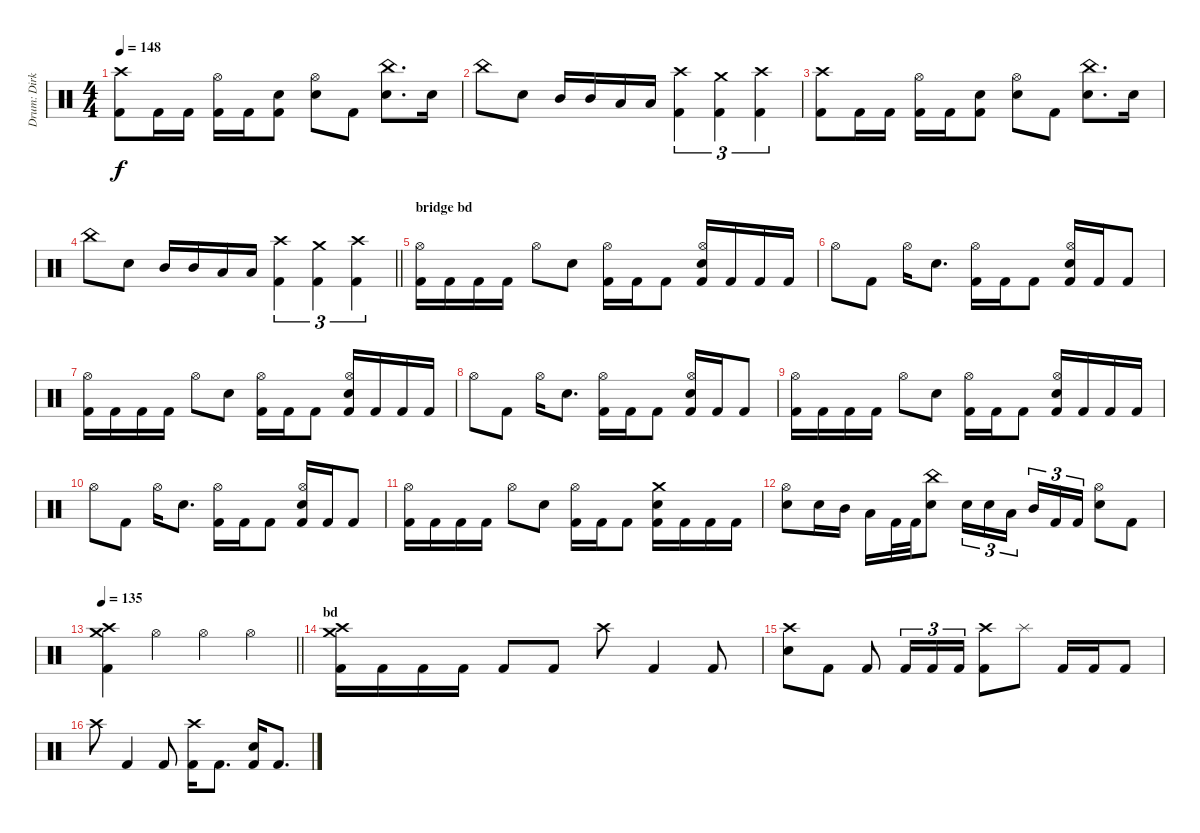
\track ("Drum: Dirk" "Drum: Dirk") {instrument percussion}
\staff {score}
\articulation defaults
\ts (4 4)
\tempo 148
\clef neutral
\ks c
("Crash high (hit)" "Kick (hit) 2").8{dy f} "Kick (hit) 2".16 "Kick (hit) 2".16 ("Hi-Hat (open)" "Kick (hit) 2").16 "Kick (hit) 2".16 ("Electric Snare (hit)" "Kick (hit) 2").8 ("Hi-Hat (open)" "Electric Snare (hit)").8 "Kick (hit) 2".8 ("China (hit)" "Electric Snare (hit)").8{d} "Electric Snare (hit)".16 |
"China (hit)".8 "Electric Snare (hit)".8 "Mid Tom (hit)".16 "Mid Tom (hit)".16 "Low Tom (hit)".16 "Low Tom (hit)".16 ("Crash high (hit)" "Kick (hit) 2").4{tu (3 2)} ("Crash medium (hit)" "Kick (hit) 2").4{tu (3 2)} ("Crash high (hit)" "Kick (hit) 2").4{tu (3 2)} |
("Crash high (hit)" "Kick (hit) 2").8 "Kick (hit) 2".16 "Kick (hit) 2".16 ("Hi-Hat (open)" "Kick (hit) 2").16 "Kick (hit) 2".16 ("Electric Snare (hit)" "Kick (hit) 2").8 ("Hi-Hat (open)" "Electric Snare (hit)").8 "Kick (hit) 2".8 ("China (hit)" "Electric Snare (hit)").8{d} "Electric Snare (hit)".16 |
\barLineRight lightlight "China (hit)".8 "Electric Snare (hit)".8 "Mid Tom (hit)".16 "Mid Tom (hit)".16 "Low Tom (hit)".16 "Low Tom (hit)".16
("Crash high (hit)" "Kick (hit) 2").4{tu (3 2)} ("Crash medium (hit)" "Kick (hit) 2").4{tu (3 2)} ("Crash high (hit)" "Kick (hit) 2").4{tu (3 2)} |
\section ("" "bridge bd")
("Hi-Hat (open)" "Kick (hit) 2").16 "Kick (hit) 2".16 "Kick (hit) 2".16 "Kick (hit) 2".16 "Hi-Hat (open)".8 "Electric Snare (hit)".8 ("Hi-Hat (open)" "Kick (hit) 2").16 "Kick (hit) 2".16 "Kick (hit) 2".8 ("Hi-Hat (open)" "Electric Snare (hit)" "Kick (hit) 2").16 "Kick (hit) 2".16 "Kick (hit) 2".16 "Kick (hit) 2".16 |
"Hi-Hat (open)".8 "Kick (hit) 2".8 "Hi-Hat (open)".16 "Electric Snare (hit)".8{d} ("Hi-Hat (open)" "Kick (hit) 2").16 "Kick (hit) 2".16 "Kick (hit) 2".8 ("Hi-Hat (open)" "Electric Snare (hit)" "Kick (hit) 2").16 "Kick (hit) 2".16 "Kick (hit) 2".8 |
("Hi-Hat (open)" "Kick (hit) 2").16 "Kick (hit) 2".16 "Kick (hit) 2".16 "Kick (hit) 2".16 "Hi-Hat (open)".8 "Electric Snare (hit)".8 ("Hi-Hat (open)" "Kick (hit) 2").16 "Kick (hit) 2".16 "Kick (hit) 2".8 ("Hi-Hat (open)" "Electric Snare (hit)" "Kick (hit) 2").16 "Kick (hit) 2".16 "Kick (hit) 2".16 "Kick (hit) 2".16 |
"Hi-Hat (open)".8 "Kick (hit) 2".8 "Hi-Hat (open)".16 "Electric Snare (hit)".8{d} ("Hi-Hat (open)" "Kick (hit) 2").16 "Kick (hit) 2".16 "Kick (hit) 2".8 ("Hi-Hat (open)" "Electric Snare (hit)" "Kick (hit) 2").16 "Kick (hit) 2".16 "Kick (hit) 2".8 |
("Hi-Hat (open)" "Kick (hit) 2").16 "Kick (hit) 2".16 "Kick (hit) 2".16 "Kick (hit) 2".16 "Hi-Hat (open)".8 "Electric Snare (hit)".8 ("Hi-Hat (open)" "Kick (hit) 2").16 "Kick (hit) 2".16 "Kick (hit) 2".8 ("Hi-Hat (open)" "Electric Snare (hit)" "Kick (hit) 2").16 "Kick (hit) 2".16 "Kick (hit) 2".16 "Kick (hit) 2".16 |
"Hi-Hat (open)".8 "Kick (hit) 2".8 "Hi-Hat (open)".16 "Electric Snare (hit)".8{d} ("Hi-Hat (open)" "Kick (hit) 2").16 "Kick (hit) 2".16 "Kick (hit) 2".8 ("Hi-Hat (open)" "Electric Snare (hit)" "Kick (hit) 2").16 "Kick (hit) 2".16 "Kick (hit) 2".8 |
("Hi-Hat (open)" "Kick (hit) 2").16 "Kick (hit) 2".16 "Kick (hit) 2".16 "Kick (hit) 2".16 "Hi-Hat (open)".8 "Electric Snare (hit)".8 ("Hi-Hat (open)" "Kick (hit) 2").16 "Kick (hit) 2".16 "Kick (hit) 2".8 ("Crash medium (hit)" "Electric Snare (hit)" "Kick (hit) 2").16 "Kick (hit) 2".16 "Kick (hit) 2".16 "Kick (hit) 2".16 |
("Hi-Hat (open)" "Electric Snare (hit)").8 "Electric Snare (hit)".16 "Mid Tom (hit)".16 "Low Tom (hit)".16 "Kick (hit) 2".32 "Kick (hit) 2".32 ("China (hit)" "Electric Snare (hit)").8 "Electric Snare (hit)".16{tu (3 2)} "Electric Snare (hit)".16{tu (3 2)} "Low Tom (hit)".16{tu (3 2) beam splitsecondary} "Mid Tom (hit)".16{tu (3 2)} "Kick (hit) 2".16{tu (3 2)} "Kick (hit) 2".16{tu (3 2)} ("Hi-Hat (open)" "Electric Snare (hit)").8 "Kick (hit) 2".8 |
\tempo 135
\barLineRight lightlight
("Crash high (hit)" "Crash medium (hit)" "Kick (hit) 2").4 "Hi-Hat (open)".4 "Hi-Hat (open)".4 "Hi-Hat (open)".4 |
\section ("" "bd")
("Crash high (hit)" "Crash medium (hit)" "Kick (hit) 2").16 "Kick (hit) 2".16 "Kick (hit) 2".16 "Kick (hit) 2".16 "Kick (hit) 2".8 "Kick (hit) 2".8 "Crash high (hit)".8 "Kick (hit) 2".4 "Kick (hit) 2".8 |
("Crash high (hit)" "Electric Snare (hit)").8 "Kick (hit) 2".8 "Kick (hit) 2".8 "Kick (hit) 2".16{tu (3 2)} "Kick (hit) 2".16{tu (3 2)} "Kick (hit) 2".16{tu (3 2)} ("Crash high (hit)" "Kick (hit) 2").8 "Splash (hit)".8 "Kick (hit) 2".16 "Kick (hit) 2".16 "Kick (hit) 2".8 |
"Crash high (hit)".8 "Kick (hit) 2".4 "Kick (hit) 2".8 ("Crash high (hit)" "Kick (hit) 2").16 "Kick (hit) 2".8{d} ("Electric Snare (hit)" "Kick (hit) 2").16 "Kick (hit) 2".8{d}
